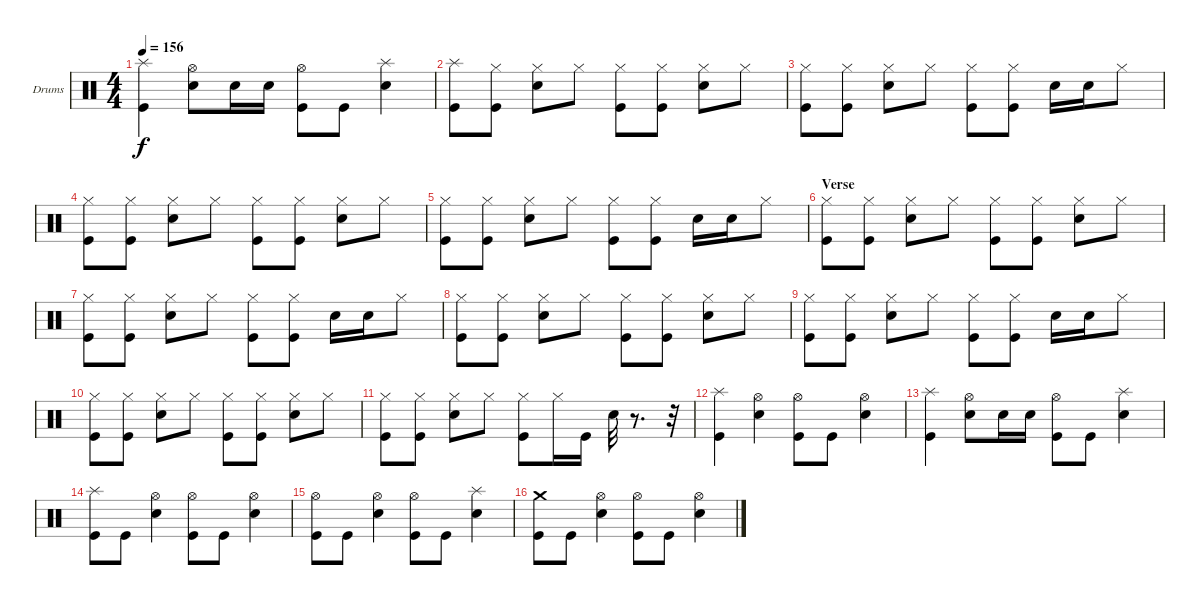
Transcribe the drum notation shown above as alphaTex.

\bracketExtendMode groupsimilarinstruments
\firstSystemTrackNameOrientation horizontal
\otherSystemsTrackNameOrientation horizontal
\track ("Drumkit" "Drums") {instrument percussion}
\staff {score}
\articulation defaults
\ts (4 4)
\tempo 156
\clef neutral
\scale
1.02648
\ks c
("Splash (hit)" "Kick (hit)").4{dy f} ("Hi-Hat (open)" "Snare (hit) 2").8 "Snare (hit) 2".16 "Snare (hit) 2".16 ("Hi-Hat (open)" "Kick (hit)").8 "Kick (hit)".8 ("Splash (hit)" "Snare (hit) 2").4 |
\scale
0.973518 ("Splash (hit)" "Kick (hit)").8 ("Hi-Hat (closed)" "Kick (hit)").8 ("Hi-Hat (closed)" "Snare (hit) 2").8 "Hi-Hat (closed)".8 ("Hi-Hat (closed)" "Kick (hit)").8 ("Hi-Hat (closed)" "Kick (hit)").8 ("Hi-Hat (closed)" "Snare (hit) 2").8 "Hi-Hat (closed)".8 |
\scale
1.02648 ("Hi-Hat (closed)" "Kick (hit)").8 ("Hi-Hat (closed)" "Kick (hit)").8 ("Hi-Hat (closed)" "Snare (hit) 2").8 "Hi-Hat (closed)".8 ("Hi-Hat (closed)" "Kick (hit)").8 ("Hi-Hat (closed)" "Kick (hit)").8 "Snare (hit) 2".16 "Snare (hit) 2".16 "Hi-Hat (closed)".8 |
\scale
0.973518 ("Hi-Hat (closed)" "Kick (hit)").8 ("Hi-Hat (closed)" "Kick (hit)").8 ("Hi-Hat (closed)" "Snare (hit) 2").8 "Hi-Hat (closed)".8 ("Hi-Hat (closed)" "Kick (hit)").8 ("Hi-Hat (closed)" "Kick (hit)").8 ("Hi-Hat (closed)" "Snare (hit) 2").8 "Hi-Hat (closed)".8 |
\scale
1.02648 ("Hi-Hat (closed)" "Kick (hit)").8 ("Hi-Hat (closed)" "Kick (hit)").8 ("Hi-Hat (closed)" "Snare (hit) 2").8 "Hi-Hat (closed)".8 ("Hi-Hat (closed)" "Kick (hit)").8 ("Hi-Hat (closed)" "Kick (hit)").8 "Snare (hit) 2".16 "Snare (hit) 2".16 "Hi-Hat (closed)".8 |
\section ("" "Verse")
\scale
0.973518 ("Hi-Hat (closed)" "Kick (hit)").8 ("Hi-Hat (closed)" "Kick (hit)").8 ("Hi-Hat (closed)" "Snare (hit) 2").8 "Hi-Hat (closed)".8 ("Hi-Hat (closed)" "Kick (hit)").8 ("Hi-Hat (closed)" "Kick (hit)").8 ("Hi-Hat (closed)" "Snare (hit) 2").8 "Hi-Hat (closed)".8 |
\scale
1.02648 ("Hi-Hat (closed)" "Kick (hit)").8 ("Hi-Hat (closed)" "Kick (hit)").8 ("Hi-Hat (closed)" "Snare (hit) 2").8 "Hi-Hat (closed)".8 ("Hi-Hat (closed)" "Kick (hit)").8 ("Hi-Hat (closed)" "Kick (hit)").8 "Snare (hit) 2".16 "Snare (hit) 2".16 "Hi-Hat (closed)".8 |
\scale
0.973518 ("Hi-Hat (closed)" "Kick (hit)").8 ("Hi-Hat (closed)" "Kick (hit)").8 ("Hi-Hat (closed)" "Snare (hit) 2").8 "Hi-Hat (closed)".8 ("Hi-Hat (closed)" "Kick (hit)").8 ("Hi-Hat (closed)" "Kick (hit)").8 ("Hi-Hat (closed)" "Snare (hit) 2").8 "Hi-Hat (closed)".8 |
\scale
1.02648 ("Hi-Hat (closed)" "Kick (hit)").8 ("Hi-Hat (closed)" "Kick (hit)").8 ("Hi-Hat (closed)" "Snare (hit) 2").8 "Hi-Hat (closed)".8 ("Hi-Hat (closed)" "Kick (hit)").8 ("Hi-Hat (closed)" "Kick (hit)").8 "Snare (hit) 2".16 "Snare (hit) 2".16 "Hi-Hat (closed)".8 |
\scale
0.973518 ("Hi-Hat (closed)" "Kick (hit)").8 ("Hi-Hat (closed)" "Kick (hit)").8 ("Hi-Hat (closed)" "Snare (hit) 2").8 "Hi-Hat (closed)".8 ("Hi-Hat (closed)" "Kick (hit)").8 ("Hi-Hat (closed)" "Kick (hit)").8 ("Hi-Hat (closed)" "Snare (hit) 2").8 "Hi-Hat (closed)".8 |
\scale
1.02648 ("Hi-Hat (closed)" "Kick (hit)").8 ("Hi-Hat (closed)" "Kick (hit)").8 ("Hi-Hat (closed)" "Snare (hit) 2").8 "Hi-Hat (closed)".8 ("Hi-Hat (closed)" "Kick (hit)").8 "Hi-Hat (closed)".16 "Kick (hit)".16 "Snare (hit) 2".32 r.8{d} r.32 |
\scale
0.973518 ("Splash (hit)" "Kick (hit)").4 ("Hi-Hat (open)" "Snare (hit) 2").4 ("Hi-Hat (open)" "Kick (hit)").8 "Kick (hit)".8 ("Hi-Hat (open)" "Snare (hit) 2").4 |
\scale
1.02648 ("Splash (hit)" "Kick (hit)").4 ("Hi-Hat (open)" "Snare (hit) 2").8 "Snare (hit) 2".16 "Snare (hit) 2".16 ("Hi-Hat (open)" "Kick (hit)").8 "Kick (hit)".8 ("Splash (hit)" "Snare (hit) 2").4 |
\scale
0.973518 ("Splash (hit)" "Kick (hit)").8 "Kick (hit)".8 ("Hi-Hat (open)" "Snare (hit) 2").4 ("Hi-Hat (open)" "Kick (hit)").8 "Kick (hit)".8 ("Hi-Hat (open)" "Snare (hit) 2").4 |
\scale
1.02648 ("Hi-Hat (open)" "Kick (hit)").8 "Kick (hit)".8 ("Hi-Hat (open)" "Snare (hit) 2").4 ("Hi-Hat (open)" "Kick (hit)").8 "Kick (hit)".8 ("Splash (hit)" "Snare (hit) 2").4 |
\scale
0.973518 ("Crash medium (hit)" "Kick (hit)").8 "Kick (hit)".8 ("Hi-Hat (open)" "Snare (hit) 2").4 ("Hi-Hat (open)" "Kick (hit)").8 "Kick (hit)".8 ("Hi-Hat (open)" "Snare (hit) 2").4
